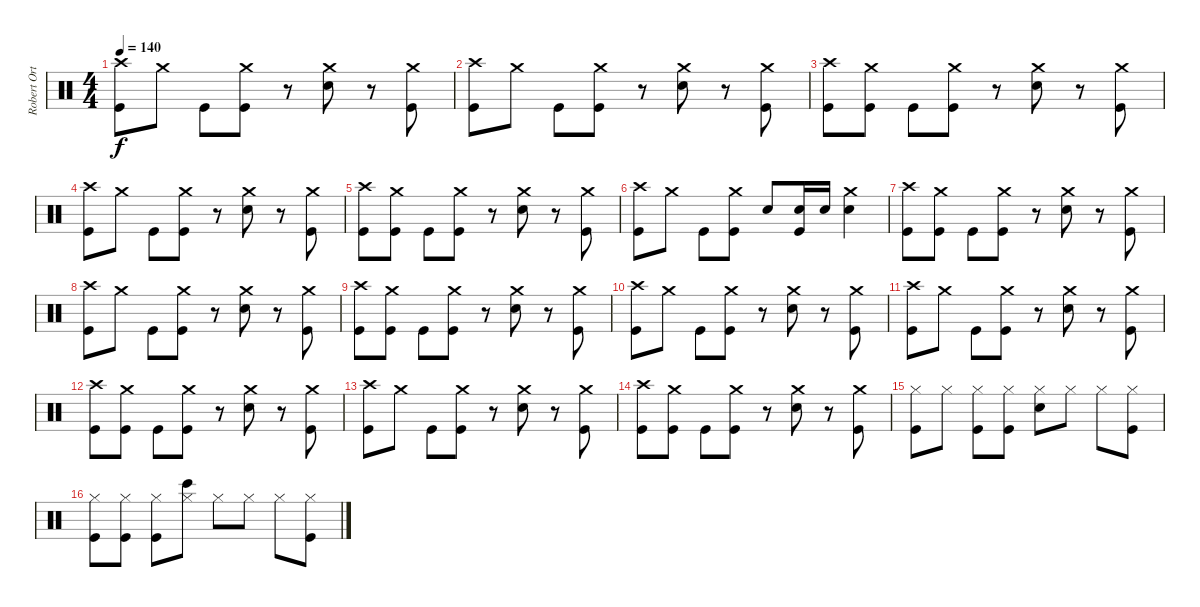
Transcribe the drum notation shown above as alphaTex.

\track ("Robert Ortiz" "Robert Ort") {instrument percussion}
\staff {score}
\articulation defaults
\ts (4 4)
\tempo 140
\clef neutral
\ks c
("Crash high (hit)" "Kick (hit)").8{dy f} "Crash medium (hit)".8 "Kick (hit)".8 ("Crash medium (hit)" "Kick (hit)").8 r.8 ("Crash medium (hit)" "Snare (hit) 2").8 r.8 ("Crash medium (hit)" "Kick (hit)").8 |
("Crash high (hit)" "Kick (hit)").8 "Crash medium (hit)".8 "Kick (hit)".8 ("Crash medium (hit)" "Kick (hit)").8 r.8 ("Crash medium (hit)" "Snare (hit) 2").8 r.8 ("Crash medium (hit)" "Kick (hit)").8 |
("Crash high (hit)" "Kick (hit)").8 ("Crash medium (hit)" "Kick (hit)").8 "Kick (hit)".8 ("Crash medium (hit)" "Kick (hit)").8 r.8 ("Crash medium (hit)" "Snare (hit) 2").8 r.8 ("Crash medium (hit)" "Kick (hit)").8 |
("Crash high (hit)" "Kick (hit)").8 "Crash medium (hit)".8 "Kick (hit)".8 ("Crash medium (hit)" "Kick (hit)").8 r.8 ("Crash medium (hit)" "Snare (hit) 2").8 r.8 ("Crash medium (hit)" "Kick (hit)").8 |
("Crash high (hit)" "Kick (hit)").8 ("Crash medium (hit)" "Kick (hit)").8 "Kick (hit)".8 ("Crash medium (hit)" "Kick (hit)").8 r.8 ("Crash medium (hit)" "Snare (hit) 2").8 r.8 ("Crash medium (hit)" "Kick (hit)").8 |
("Crash high (hit)" "Kick (hit)").8 "Crash medium (hit)".8 "Kick (hit)".8 ("Crash medium (hit)" "Kick (hit)").8 "Snare (hit) 2".8 ("Snare (hit) 2" "Kick (hit)").16 "Snare (hit) 2".16 ("Crash medium (hit)" "Snare (hit) 2").4 |
("Crash high (hit)" "Kick (hit)").8 ("Crash medium (hit)" "Kick (hit)").8 "Kick (hit)".8 ("Crash medium (hit)" "Kick (hit)").8 r.8 ("Crash medium (hit)" "Snare (hit) 2").8 r.8 ("Crash medium (hit)" "Kick (hit)").8 |
("Crash high (hit)" "Kick (hit)").8 "Crash medium (hit)".8 "Kick (hit)".8 ("Crash medium (hit)" "Kick (hit)").8 r.8 ("Crash medium (hit)" "Snare (hit) 2").8 r.8 ("Crash medium (hit)" "Kick (hit)").8 |
("Crash high (hit)" "Kick (hit)").8 ("Crash medium (hit)" "Kick (hit)").8 "Kick (hit)".8 ("Crash medium (hit)" "Kick (hit)").8 r.8 ("Crash medium (hit)" "Snare (hit) 2").8 r.8 ("Crash medium (hit)" "Kick (hit)").8 |
("Crash high (hit)" "Kick (hit)").8 "Crash medium (hit)".8 "Kick (hit)".8 ("Crash medium (hit)" "Kick (hit)").8 r.8 ("Crash medium (hit)" "Snare (hit) 2").8 r.8 ("Crash medium (hit)" "Kick (hit)").8 |
("Crash high (hit)" "Kick (hit)").8 "Crash medium (hit)".8 "Kick (hit)".8 ("Crash medium (hit)" "Kick (hit)").8 r.8 ("Crash medium (hit)" "Snare (hit) 2").8 r.8 ("Crash medium (hit)" "Kick (hit)").8 |
("Crash high (hit)" "Kick (hit)").8 ("Crash medium (hit)" "Kick (hit)").8 "Kick (hit)".8 ("Crash medium (hit)" "Kick (hit)").8 r.8 ("Crash medium (hit)" "Snare (hit) 2").8 r.8 ("Crash medium (hit)" "Kick (hit)").8 |
("Crash high (hit)" "Kick (hit)").8 "Crash medium (hit)".8 "Kick (hit)".8 ("Crash medium (hit)" "Kick (hit)").8 r.8 ("Crash medium (hit)" "Snare (hit) 2").8 r.8 ("Crash medium (hit)" "Kick (hit)").8 |
("Crash high (hit)" "Kick (hit)").8 ("Crash medium (hit)" "Kick (hit)").8 "Kick (hit)".8 ("Crash medium (hit)" "Kick (hit)").8 r.8 ("Crash medium (hit)" "Snare (hit) 2").8 r.8 ("Crash medium (hit)" "Kick (hit)").8 |
("Hi-Hat (closed)" "Kick (hit)").8 "Hi-Hat (closed)".8 ("Hi-Hat (closed)" "Kick (hit)").8 ("Hi-Hat (closed)" "Kick (hit)").8 ("Hi-Hat (closed)" "Snare (hit) 2").8 "Hi-Hat (closed)".8 "Hi-Hat (closed)".8 ("Hi-Hat (closed)" "Kick (hit)").8 |
("Hi-Hat (closed)" "Kick (hit)").8 ("Hi-Hat (closed)" "Kick (hit)").8 ("Hi-Hat (closed)" "Kick (hit)").8 ("Hi-Hat (closed)" "Bongo High (hit)").8 "Hi-Hat (closed)".8 "Hi-Hat (closed)".8 "Hi-Hat (closed)".8 ("Hi-Hat (closed)" "Kick (hit)").8
